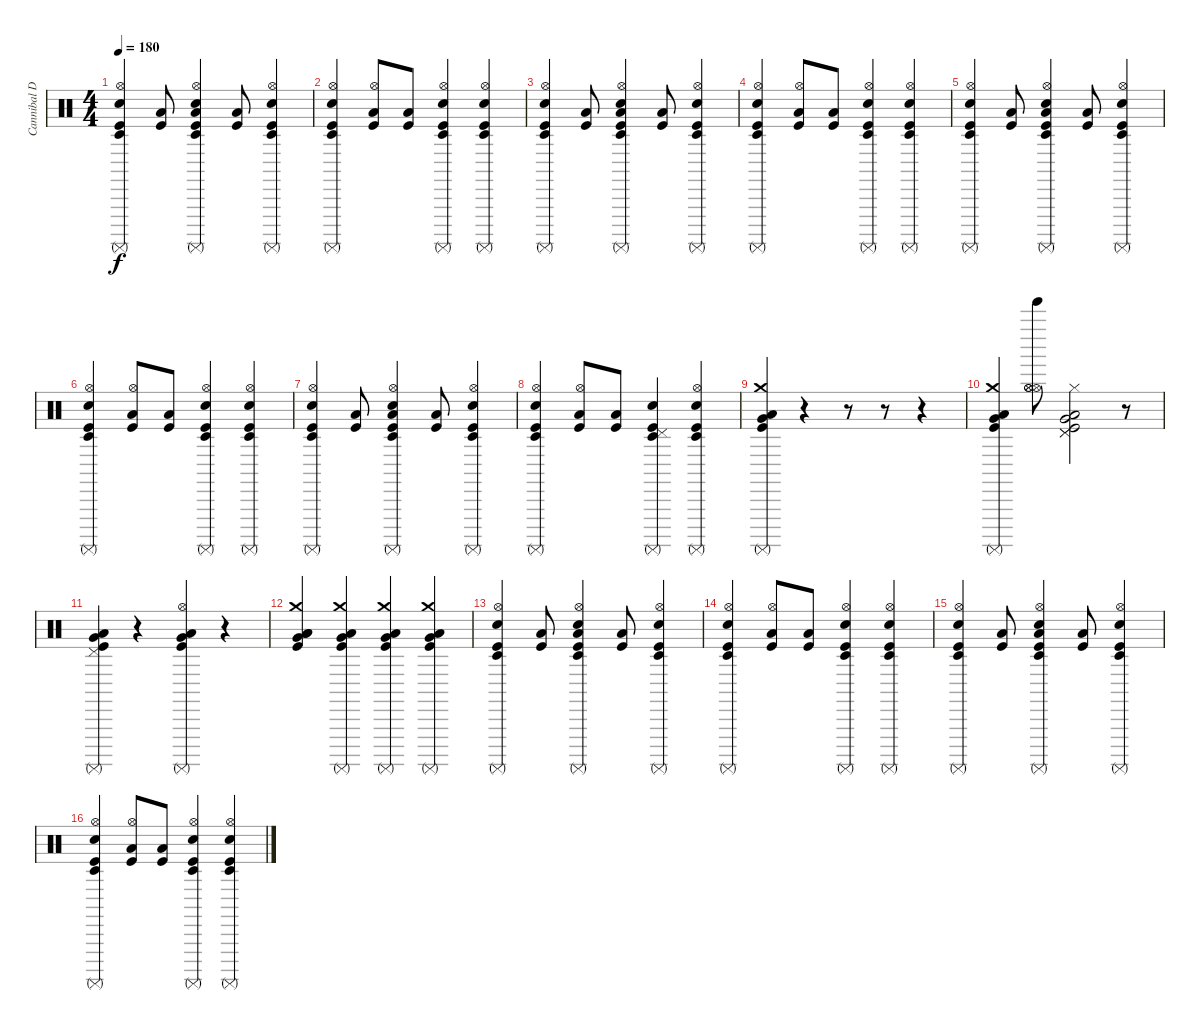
\track ("Cannibal Drums :)" "Cannibal D") {instrument percussion}
\staff {score}
\articulation defaults
\ts (4 4)
\tempo 180
\clef neutral
\ks c
("Kick (hit)" "Hi-Hat (open)" "Surdo (mute)" "Timbale low (hit)" "Snare (hit) 2").4{dy f} ("Kick (hit)" "Low Floor Tom (hit)").8 ("Kick (hit)" "Hi-Hat (open)" "Timbale low (hit)" "Low Tom (hit)" "Snare (hit) 2" "Surdo (mute)").4 ("Kick (hit)" "Low Floor Tom (hit)").8 ("Kick (hit)" "Hi-Hat (open)" "Timbale low (hit)" "Surdo (mute)" "Snare (hit) 2").4 |
("Kick (hit)" "Hi-Hat (open)" "Timbale low (hit)" "Surdo (mute)" "Snare (hit) 2").4 ("Kick (hit)" "Hi-Hat (open)" "Low Floor Tom (hit)").8 ("Kick (hit)" "Low Floor Tom (hit)").8 ("Kick (hit)" "Hi-Hat (open)" "Timbale low (hit)" "Surdo (mute)" "Snare (hit) 2").4 ("Kick (hit)" "Hi-Hat (open)" "Timbale low (hit)" "Surdo (mute)" "Snare (hit) 2").4 |
("Kick (hit)" "Hi-Hat (open)" "Surdo (mute)" "Timbale low (hit)" "Snare (hit) 2").4 ("Kick (hit)" "Low Floor Tom (hit)").8 ("Kick (hit)" "Hi-Hat (open)" "Timbale low (hit)" "Low Tom (hit)" "Snare (hit) 2" "Surdo (mute)").4 ("Kick (hit)" "Low Floor Tom (hit)").8 ("Kick (hit)" "Hi-Hat (open)" "Timbale low (hit)" "Surdo (mute)" "Snare (hit) 2").4 |
("Kick (hit)" "Hi-Hat (open)" "Timbale low (hit)" "Surdo (mute)" "Snare (hit) 2").4 ("Kick (hit)" "Hi-Hat (open)" "Low Floor Tom (hit)").8 ("Kick (hit)" "Low Floor Tom (hit)").8 ("Kick (hit)" "Hi-Hat (open)" "Timbale low (hit)" "Surdo (mute)" "Snare (hit) 2").4 ("Kick (hit)" "Hi-Hat (open)" "Timbale low (hit)" "Surdo (mute)" "Snare (hit) 2").4 |
("Kick (hit)" "Hi-Hat (open)" "Surdo (mute)" "Timbale low (hit)" "Snare (hit) 2").4 ("Kick (hit)" "Low Floor Tom (hit)").8 ("Kick (hit)" "Hi-Hat (open)" "Timbale low (hit)" "Low Tom (hit)" "Snare (hit) 2" "Surdo (mute)").4 ("Kick (hit)" "Low Floor Tom (hit)").8 ("Kick (hit)" "Hi-Hat (open)" "Timbale low (hit)" "Surdo (mute)" "Snare (hit) 2").4 |
("Kick (hit)" "Hi-Hat (open)" "Timbale low (hit)" "Surdo (mute)" "Snare (hit) 2").4 ("Kick (hit)" "Hi-Hat (open)" "Low Floor Tom (hit)").8 ("Kick (hit)" "Low Floor Tom (hit)").8 ("Kick (hit)" "Hi-Hat (open)" "Timbale low (hit)" "Surdo (mute)" "Snare (hit) 2").4 ("Kick (hit)" "Hi-Hat (open)" "Timbale low (hit)" "Surdo (mute)" "Snare (hit) 2").4 |
("Kick (hit)" "Hi-Hat (open)" "Surdo (mute)" "Timbale low (hit)" "Snare (hit) 2").4 ("Kick (hit)" "Low Floor Tom (hit)").8 ("Kick (hit)" "Hi-Hat (open)" "Timbale low (hit)" "Low Tom (hit)" "Snare (hit) 2" "Surdo (mute)").4 ("Kick (hit)" "Low Floor Tom (hit)").8 ("Kick (hit)" "Hi-Hat (open)" "Timbale low (hit)" "Surdo (mute)" "Snare (hit) 2").4 |
("Kick (hit)" "Hi-Hat (open)" "Timbale low (hit)" "Surdo (mute)" "Snare (hit) 2").4 ("Kick (hit)" "Hi-Hat (open)" "Low Floor Tom (hit)").8 ("Kick (hit)" "Low Floor Tom (hit)").8 ("Kick (hit)" "Pedal Hi-Hat (hit)" "Timbale low (hit)" "Surdo (mute)" "Snare (hit) 2").4 ("Kick (hit)" "Hi-Hat (open)" "Timbale low (hit)" "Surdo (mute)" "Snare (hit) 2").4 |
("Kick (hit)" "Crash medium (hit)" "Low Tom (hit)" "Surdo (mute)" "Very Low Tom (hit)").4 r.4 r.8 r.8 r.4 |
("Kick (hit)" "Crash medium (hit)" "Low Tom (hit)" "Surdo (mute)" "Very Low Tom (hit)").4 ("Hi-Hat (open)" "Hi-Hat (open)" "Hi-Hat (open)" "Tinkle Bell (hit)").8 ("Kick (hit)" "Pedal Hi-Hat (hit)" "Pedal Hi-Hat (hit)" "Hi-Hat (closed)" "Very Low Tom (hit)" "Low Floor Tom (hit)").2 r.8 |
("Kick (hit)" "Pedal Hi-Hat (hit)" "Low Tom (hit)" "Surdo (mute)" "Very Low Tom (hit)").4 r.4 ("Kick (hit)" "Hi-Hat (open)" "Low Tom (hit)" "Surdo (mute)" "Very Low Tom (hit)").4 r.4 |
("Kick (hit)" "Crash medium (hit)" "Low Tom (hit)" "Low Floor Tom (hit)" "Very Low Tom (hit)").4 ("Kick (hit)" "Crash medium (hit)" "Low Tom (hit)" "Surdo (mute)" "Very Low Tom (hit)").4 ("Kick (hit)" "Crash medium (hit)" "Low Tom (hit)" "Surdo (mute)" "Very Low Tom (hit)").4 ("Kick (hit)" "Crash medium (hit)" "Low Tom (hit)" "Surdo (mute)" "Very Low Tom (hit)").4 |
("Kick (hit)" "Hi-Hat (open)" "Surdo (mute)" "Timbale low (hit)" "Snare (hit) 2").4 ("Kick (hit)" "Low Floor Tom (hit)").8 ("Kick (hit)" "Hi-Hat (open)" "Timbale low (hit)" "Low Tom (hit)" "Snare (hit) 2" "Surdo (mute)").4 ("Kick (hit)" "Low Floor Tom (hit)").8 ("Kick (hit)" "Hi-Hat (open)" "Timbale low (hit)" "Surdo (mute)" "Snare (hit) 2").4 |
("Kick (hit)" "Hi-Hat (open)" "Timbale low (hit)" "Surdo (mute)" "Snare (hit) 2").4 ("Kick (hit)" "Hi-Hat (open)" "Low Floor Tom (hit)").8 ("Kick (hit)" "Low Floor Tom (hit)").8 ("Kick (hit)" "Hi-Hat (open)" "Timbale low (hit)" "Surdo (mute)" "Snare (hit) 2").4 ("Kick (hit)" "Hi-Hat (open)" "Timbale low (hit)" "Surdo (mute)" "Snare (hit) 2").4 |
("Kick (hit)" "Hi-Hat (open)" "Surdo (mute)" "Timbale low (hit)" "Snare (hit) 2").4 ("Kick (hit)" "Low Floor Tom (hit)").8 ("Kick (hit)" "Hi-Hat (open)" "Timbale low (hit)" "Low Tom (hit)" "Snare (hit) 2" "Surdo (mute)").4 ("Kick (hit)" "Low Floor Tom (hit)").8 ("Kick (hit)" "Hi-Hat (open)" "Timbale low (hit)" "Surdo (mute)" "Snare (hit) 2").4 |
("Kick (hit)" "Hi-Hat (open)" "Timbale low (hit)" "Surdo (mute)" "Snare (hit) 2").4 ("Kick (hit)" "Hi-Hat (open)" "Low Floor Tom (hit)").8 ("Kick (hit)" "Low Floor Tom (hit)").8 ("Kick (hit)" "Hi-Hat (open)" "Timbale low (hit)" "Surdo (mute)" "Snare (hit) 2").4 ("Kick (hit)" "Hi-Hat (open)" "Timbale low (hit)" "Surdo (mute)" "Snare (hit) 2").4
